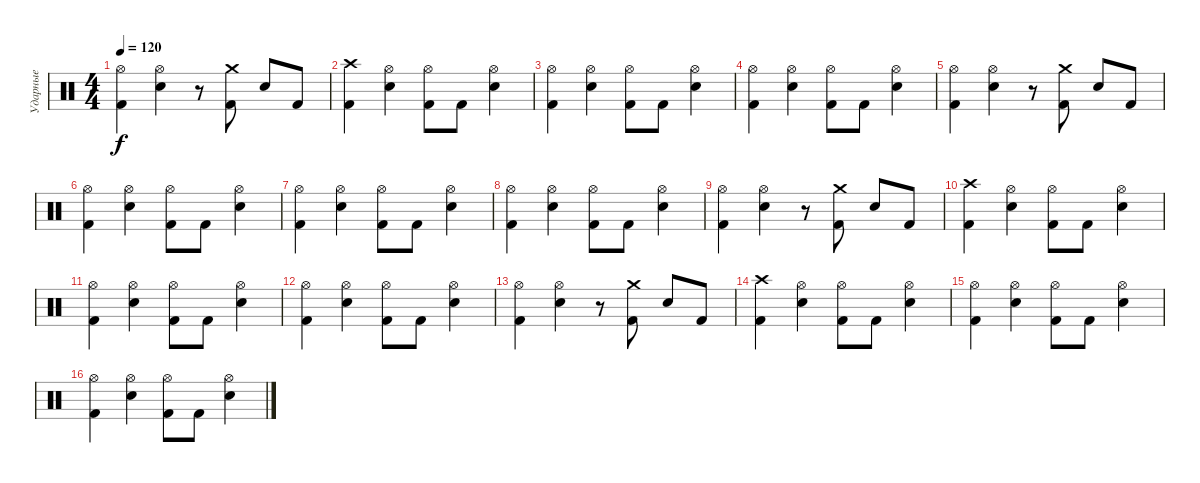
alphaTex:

\track ("Ударные" "Ударные") {instrument percussion}
\staff {score}
\articulation defaults
\ts (4 4)
\tempo 120
\clef neutral
\ks c
("Hi-Hat (open)" "Kick (hit) 2").4{dy f} ("Hi-Hat (open)" "Electric Snare (hit)").4 r.8 ("Crash medium (hit)" "Kick (hit) 2").8 "Electric Snare (hit)".8 "Kick (hit) 2".8 |
("Crash high (hit)" "Kick (hit) 2").4 ("Hi-Hat (open)" "Electric Snare (hit)").4 ("Hi-Hat (open)" "Kick (hit) 2").8 "Kick (hit) 2".8 ("Hi-Hat (open)" "Electric Snare (hit)").4 |
("Hi-Hat (open)" "Kick (hit) 2").4 ("Hi-Hat (open)" "Electric Snare (hit)").4 ("Hi-Hat (open)" "Kick (hit) 2").8 "Kick (hit) 2".8 ("Hi-Hat (open)" "Electric Snare (hit)").4 |
("Hi-Hat (open)" "Kick (hit) 2").4 ("Hi-Hat (open)" "Electric Snare (hit)").4 ("Hi-Hat (open)" "Kick (hit) 2").8 "Kick (hit) 2".8 ("Hi-Hat (open)" "Electric Snare (hit)").4 |
("Hi-Hat (open)" "Kick (hit) 2").4 ("Hi-Hat (open)" "Electric Snare (hit)").4 r.8 ("Crash medium (hit)" "Kick (hit) 2").8 "Electric Snare (hit)".8 "Kick (hit) 2".8 |
("Hi-Hat (open)" "Kick (hit) 2").4 ("Hi-Hat (open)" "Electric Snare (hit)").4 ("Hi-Hat (open)" "Kick (hit) 2").8 "Kick (hit) 2".8 ("Hi-Hat (open)" "Electric Snare (hit)").4 |
("Hi-Hat (open)" "Kick (hit) 2").4 ("Hi-Hat (open)" "Electric Snare (hit)").4 ("Hi-Hat (open)" "Kick (hit) 2").8 "Kick (hit) 2".8 ("Hi-Hat (open)" "Electric Snare (hit)").4 |
("Hi-Hat (open)" "Kick (hit) 2").4 ("Hi-Hat (open)" "Electric Snare (hit)").4 ("Hi-Hat (open)" "Kick (hit) 2").8 "Kick (hit) 2".8 ("Hi-Hat (open)" "Electric Snare (hit)").4 |
("Hi-Hat (open)" "Kick (hit) 2").4 ("Hi-Hat (open)" "Electric Snare (hit)").4 r.8 ("Crash medium (hit)" "Kick (hit) 2").8 "Electric Snare (hit)".8 "Kick (hit) 2".8 |
("Crash high (hit)" "Kick (hit) 2").4 ("Hi-Hat (open)" "Electric Snare (hit)").4 ("Hi-Hat (open)" "Kick (hit) 2").8 "Kick (hit) 2".8 ("Hi-Hat (open)" "Electric Snare (hit)").4 |
("Hi-Hat (open)" "Kick (hit) 2").4 ("Hi-Hat (open)" "Electric Snare (hit)").4 ("Hi-Hat (open)" "Kick (hit) 2").8 "Kick (hit) 2".8 ("Hi-Hat (open)" "Electric Snare (hit)").4 |
("Hi-Hat (open)" "Kick (hit) 2").4 ("Hi-Hat (open)" "Electric Snare (hit)").4 ("Hi-Hat (open)" "Kick (hit) 2").8 "Kick (hit) 2".8 ("Hi-Hat (open)" "Electric Snare (hit)").4 |
("Hi-Hat (open)" "Kick (hit) 2").4 ("Hi-Hat (open)" "Electric Snare (hit)").4 r.8 ("Crash medium (hit)" "Kick (hit) 2").8 "Electric Snare (hit)".8 "Kick (hit) 2".8 |
("Crash high (hit)" "Kick (hit) 2").4 ("Hi-Hat (open)" "Electric Snare (hit)").4 ("Hi-Hat (open)" "Kick (hit) 2").8 "Kick (hit) 2".8 ("Hi-Hat (open)" "Electric Snare (hit)").4 |
("Hi-Hat (open)" "Kick (hit) 2").4 ("Hi-Hat (open)" "Electric Snare (hit)").4 ("Hi-Hat (open)" "Kick (hit) 2").8 "Kick (hit) 2".8 ("Hi-Hat (open)" "Electric Snare (hit)").4 |
("Hi-Hat (open)" "Kick (hit) 2").4 ("Hi-Hat (open)" "Electric Snare (hit)").4 ("Hi-Hat (open)" "Kick (hit) 2").8 "Kick (hit) 2".8 ("Hi-Hat (open)" "Electric Snare (hit)").4
